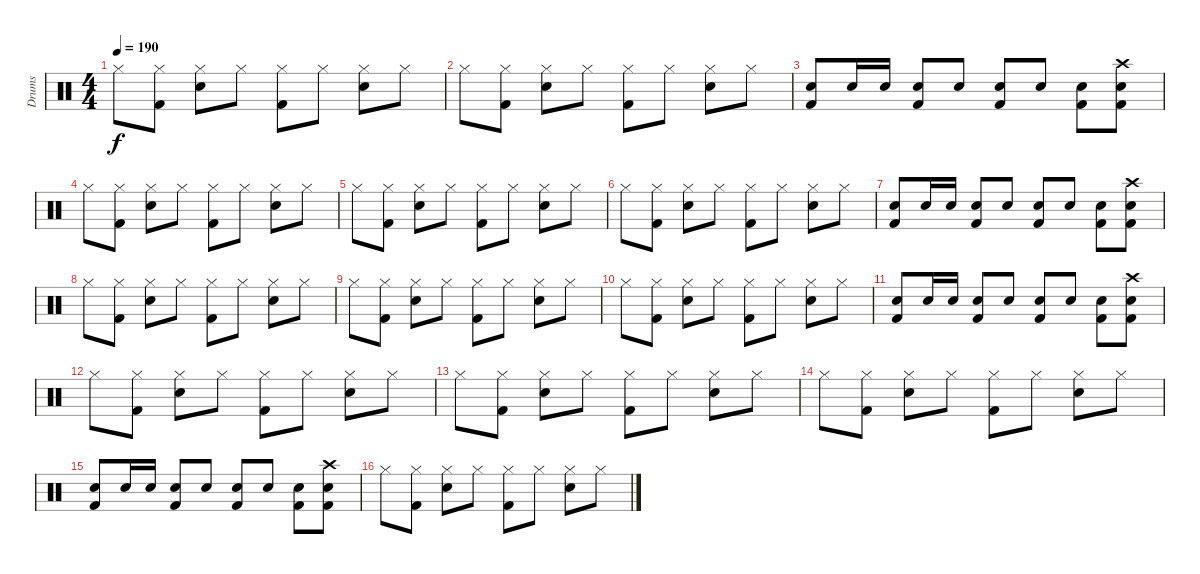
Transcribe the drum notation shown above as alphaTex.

\track ("Drums" "Drums") {instrument percussion}
\staff {score}
\articulation defaults
\ts (4 4)
\tempo 190
\clef neutral
\ks c "Hi-Hat (closed)".8{dy f}
("Kick (hit) 2" "Hi-Hat (closed)").8 ("Snare (hit) 2" "Hi-Hat (closed)").8 "Hi-Hat (closed)".8 ("Kick (hit) 2" "Hi-Hat (closed)").8 "Hi-Hat (closed)".8 ("Snare (hit) 2" "Hi-Hat (closed)").8 "Hi-Hat (closed)".8 |
"Hi-Hat (closed)".8 ("Kick (hit) 2" "Hi-Hat (closed)").8 ("Snare (hit) 2" "Hi-Hat (closed)").8 "Hi-Hat (closed)".8 ("Kick (hit) 2" "Hi-Hat (closed)").8 "Hi-Hat (closed)".8 ("Snare (hit) 2" "Hi-Hat (closed)").8 "Hi-Hat (closed)".8 |
("Kick (hit) 2" "Snare (hit) 2").8 "Snare (hit) 2".16 "Snare (hit) 2".16 ("Kick (hit) 2" "Snare (hit) 2").8 "Snare (hit) 2".8 ("Kick (hit) 2" "Snare (hit) 2").8 "Snare (hit) 2".8 ("Kick (hit) 2" "Snare (hit) 2").8 ("Kick (hit) 2" "Snare (hit) 2" "Crash high (hit)").8 |
"Hi-Hat (closed)".8 ("Kick (hit) 2" "Hi-Hat (closed)").8 ("Snare (hit) 2" "Hi-Hat (closed)").8 "Hi-Hat (closed)".8 ("Kick (hit) 2" "Hi-Hat (closed)").8 "Hi-Hat (closed)".8 ("Snare (hit) 2" "Hi-Hat (closed)").8 "Hi-Hat (closed)".8 |
"Hi-Hat (closed)".8 ("Kick (hit) 2" "Hi-Hat (closed)").8 ("Snare (hit) 2" "Hi-Hat (closed)").8 "Hi-Hat (closed)".8 ("Kick (hit) 2" "Hi-Hat (closed)").8 "Hi-Hat (closed)".8 ("Snare (hit) 2" "Hi-Hat (closed)").8 "Hi-Hat (closed)".8 |
"Hi-Hat (closed)".8 ("Kick (hit) 2" "Hi-Hat (closed)").8 ("Snare (hit) 2" "Hi-Hat (closed)").8 "Hi-Hat (closed)".8 ("Kick (hit) 2" "Hi-Hat (closed)").8 "Hi-Hat (closed)".8 ("Snare (hit) 2" "Hi-Hat (closed)").8 "Hi-Hat (closed)".8 |
("Kick (hit) 2" "Snare (hit) 2").8 "Snare (hit) 2".16 "Snare (hit) 2".16 ("Kick (hit) 2" "Snare (hit) 2").8 "Snare (hit) 2".8 ("Kick (hit) 2" "Snare (hit) 2").8 "Snare (hit) 2".8 ("Kick (hit) 2" "Snare (hit) 2").8 ("Kick (hit) 2" "Snare (hit) 2" "Crash high (hit)").8 |
"Hi-Hat (closed)".8 ("Kick (hit) 2" "Hi-Hat (closed)").8 ("Snare (hit) 2" "Hi-Hat (closed)").8 "Hi-Hat (closed)".8 ("Kick (hit) 2" "Hi-Hat (closed)").8 "Hi-Hat (closed)".8 ("Snare (hit) 2" "Hi-Hat (closed)").8 "Hi-Hat (closed)".8 |
"Hi-Hat (closed)".8 ("Kick (hit) 2" "Hi-Hat (closed)").8 ("Snare (hit) 2" "Hi-Hat (closed)").8 "Hi-Hat (closed)".8 ("Kick (hit) 2" "Hi-Hat (closed)").8 "Hi-Hat (closed)".8 ("Snare (hit) 2" "Hi-Hat (closed)").8 "Hi-Hat (closed)".8 |
"Hi-Hat (closed)".8 ("Kick (hit) 2" "Hi-Hat (closed)").8 ("Snare (hit) 2" "Hi-Hat (closed)").8 "Hi-Hat (closed)".8 ("Kick (hit) 2" "Hi-Hat (closed)").8 "Hi-Hat (closed)".8 ("Snare (hit) 2" "Hi-Hat (closed)").8 "Hi-Hat (closed)".8 |
("Kick (hit) 2" "Snare (hit) 2").8 "Snare (hit) 2".16 "Snare (hit) 2".16 ("Kick (hit) 2" "Snare (hit) 2").8 "Snare (hit) 2".8 ("Kick (hit) 2" "Snare (hit) 2").8 "Snare (hit) 2".8 ("Kick (hit) 2" "Snare (hit) 2").8 ("Kick (hit) 2" "Snare (hit) 2" "Crash high (hit)").8 |
"Hi-Hat (closed)".8 ("Kick (hit) 2" "Hi-Hat (closed)").8 ("Snare (hit) 2" "Hi-Hat (closed)").8 "Hi-Hat (closed)".8 ("Kick (hit) 2" "Hi-Hat (closed)").8 "Hi-Hat (closed)".8 ("Snare (hit) 2" "Hi-Hat (closed)").8 "Hi-Hat (closed)".8 |
"Hi-Hat (closed)".8 ("Kick (hit) 2" "Hi-Hat (closed)").8 ("Snare (hit) 2" "Hi-Hat (closed)").8 "Hi-Hat (closed)".8 ("Kick (hit) 2" "Hi-Hat (closed)").8 "Hi-Hat (closed)".8 ("Snare (hit) 2" "Hi-Hat (closed)").8 "Hi-Hat (closed)".8 |
"Hi-Hat (closed)".8 ("Kick (hit) 2" "Hi-Hat (closed)").8 ("Snare (hit) 2" "Hi-Hat (closed)").8 "Hi-Hat (closed)".8 ("Kick (hit) 2" "Hi-Hat (closed)").8 "Hi-Hat (closed)".8 ("Snare (hit) 2" "Hi-Hat (closed)").8 "Hi-Hat (closed)".8 |
("Kick (hit) 2" "Snare (hit) 2").8 "Snare (hit) 2".16 "Snare (hit) 2".16 ("Kick (hit) 2" "Snare (hit) 2").8 "Snare (hit) 2".8 ("Kick (hit) 2" "Snare (hit) 2").8 "Snare (hit) 2".8 ("Kick (hit) 2" "Snare (hit) 2").8 ("Kick (hit) 2" "Snare (hit) 2" "Crash high (hit)").8 |
"Hi-Hat (closed)".8 ("Kick (hit) 2" "Hi-Hat (closed)").8 ("Snare (hit) 2" "Hi-Hat (closed)").8 "Hi-Hat (closed)".8 ("Kick (hit) 2" "Hi-Hat (closed)").8 "Hi-Hat (closed)".8 ("Snare (hit) 2" "Hi-Hat (closed)").8 "Hi-Hat (closed)".8
